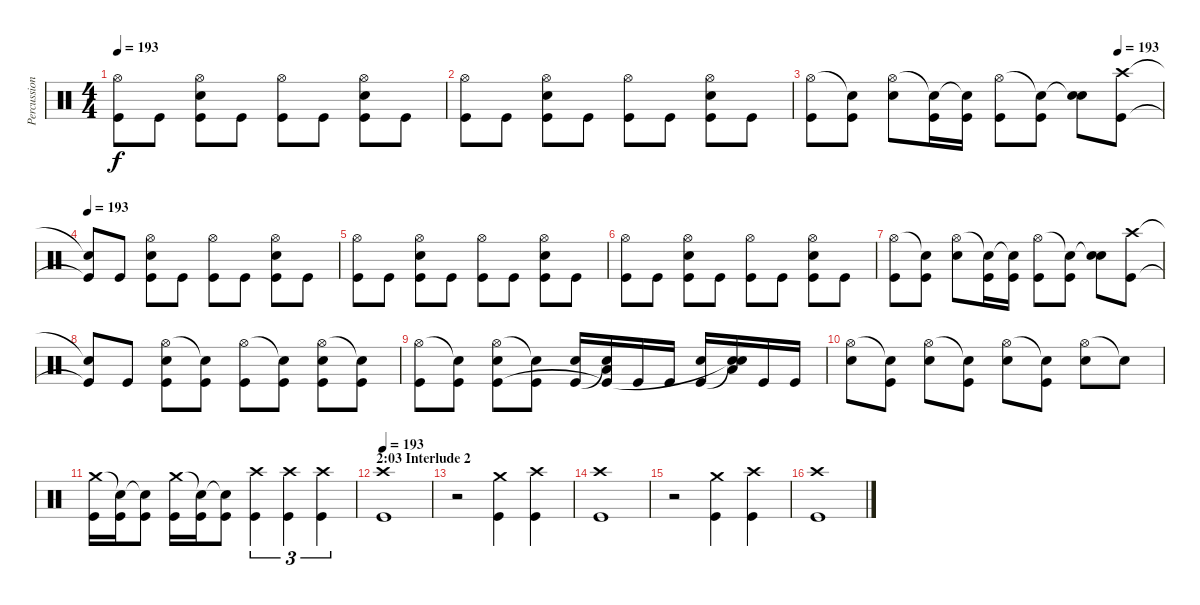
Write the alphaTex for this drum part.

\track ("Percussion" "Percussion") {instrument percussion}
\staff {score}
\articulation defaults
\ts (4 4)
\tempo 193
\clef neutral
\ks c
("Hi-Hat (open)" "Kick (hit)").8{dy f} "Kick (hit)".8 ("Hi-Hat (open)" "Snare (hit) 2" "Kick (hit)").8 "Kick (hit)".8 ("Hi-Hat (open)" "Kick (hit)").8 "Kick (hit)".8 ("Hi-Hat (open)" "Snare (hit) 2" "Kick (hit)").8 "Kick (hit)".8 |
("Hi-Hat (open)" "Kick (hit)").8 "Kick (hit)".8 ("Hi-Hat (open)" "Snare (hit) 2" "Kick (hit)").8 "Kick (hit)".8 ("Hi-Hat (open)" "Kick (hit)").8 "Kick (hit)".8 ("Hi-Hat (open)" "Snare (hit) 2" "Kick (hit)").8 "Kick (hit)".8 |
\tempo (193 0.875)
("Hi-Hat (open)" "Kick (hit)").8 ("Snare (hit)"{t} "Kick (hit)").8 ("Hi-Hat (open)" "Snare (hit) 2").8 ("Snare (hit)"{t} "Kick (hit)").16 ("Snare (hit)"{t} "Kick (hit)").16 ("Hi-Hat (open)" "Kick (hit)").8 ("Snare (hit)"{t} "Kick (hit)").8 ("Snare (hit)"{t} "Snare (hit) 2").8 ("Crash high (hit)" "Kick (hit)").8 |
\tempo 193
("Snare (hit)"{t} "Kick (hit)"{t}).8 "Kick (hit)".8 ("Hi-Hat (open)" "Snare (hit) 2" "Kick (hit)").8 "Kick (hit)".8 ("Hi-Hat (open)" "Kick (hit)").8 "Kick (hit)".8 ("Hi-Hat (open)" "Snare (hit) 2" "Kick (hit)").8 "Kick (hit)".8 |
("Hi-Hat (open)" "Kick (hit)").8 "Kick (hit)".8 ("Hi-Hat (open)" "Snare (hit) 2" "Kick (hit)").8 "Kick (hit)".8 ("Hi-Hat (open)" "Kick (hit)").8 "Kick (hit)".8 ("Hi-Hat (open)" "Snare (hit) 2" "Kick (hit)").8 "Kick (hit)".8 |
("Hi-Hat (open)" "Kick (hit)").8 "Kick (hit)".8 ("Hi-Hat (open)" "Snare (hit) 2" "Kick (hit)").8 "Kick (hit)".8 ("Hi-Hat (open)" "Kick (hit)").8 "Kick (hit)".8 ("Hi-Hat (open)" "Snare (hit) 2" "Kick (hit)").8 "Kick (hit)".8 |
("Hi-Hat (open)" "Kick (hit)").8 ("Snare (hit)"{t} "Kick (hit)").8 ("Hi-Hat (open)" "Snare (hit) 2").8 ("Snare (hit)"{t} "Kick (hit)").16 ("Snare (hit)"{t} "Kick (hit)").16 ("Hi-Hat (open)" "Kick (hit)").8 ("Snare (hit)"{t} "Kick (hit)").8 ("Snare (hit)"{t} "Snare (hit) 2").8 ("Crash high (hit)" "Kick (hit)").8 |
("Snare (hit)"{t} "Kick (hit)"{t}).8 "Kick (hit)".8 ("Hi-Hat (open)" "Snare (hit) 2" "Kick (hit)").8 ("Snare (hit)"{t} "Kick (hit)").8 ("Hi-Hat (open)" "Kick (hit)").8 ("Snare (hit)"{t} "Kick (hit)").8 ("Hi-Hat (open)" "Snare (hit) 2" "Kick (hit)").8 ("Snare (hit)"{t} "Kick (hit)").8 |
("Hi-Hat (open)" "Kick (hit)").8 ("Snare (hit)"{t} "Kick (hit)").8 ("Hi-Hat (open)" "Snare (hit) 2" "Kick (hit)").8 ("Snare (hit)"{t} "Kick (hit)").8 ("Snare (hit) 2" "Kick (hit)").16 ("Low Tom (hit)" "Snare (hit) 2"{t} "Kick (hit)"{t}).16 "Kick (hit)".16 "Kick (hit)".16 ("Snare (hit) 2" "Kick (hit)").16 ("Low Tom (hit)" "Snare (hit) 2"{t} "Snare (hit)"{t}).16 "Kick (hit)".16 "Kick (hit)".16 |
("Hi-Hat (open)" "Snare (hit) 2").8 ("Snare (hit)"{t} "Kick (hit)").8 ("Hi-Hat (open)" "Snare (hit) 2").8 ("Snare (hit)"{t} "Kick (hit)").8 ("Hi-Hat (open)" "Snare (hit) 2").8 ("Snare (hit)"{t} "Kick (hit)").8 ("Hi-Hat (open)" "Snare (hit) 2").8 "Snare (hit)"{t}.8 |
("Crash medium (hit)" "Kick (hit)").16 ("Snare (hit)"{t} "Kick (hit)").16 ("Snare (hit)"{t} "Kick (hit)").8 ("Crash medium (hit)" "Kick (hit)").16 ("Snare (hit)"{t} "Kick (hit)").16 ("Snare (hit)"{t} "Kick (hit)").8 ("Crash high (hit)" "Kick (hit)").4{tu (3 2)} ("Crash high (hit)" "Kick (hit)").4{tu (3 2)} ("Crash high (hit)" "Kick (hit)").4{tu (3 2)} |
\section ("" "2:03 Interlude 2")
\tempo 193
("Crash high (hit)" "Kick (hit)").1 |
r.2 ("Crash medium (hit)" "Kick (hit)").4 ("Crash high (hit)" "Kick (hit)").4 |
("Crash high (hit)" "Kick (hit)").1 |
r.2 ("Crash medium (hit)" "Kick (hit)").4 ("Crash high (hit)" "Kick (hit)").4 |
("Crash high (hit)" "Kick (hit)").1
